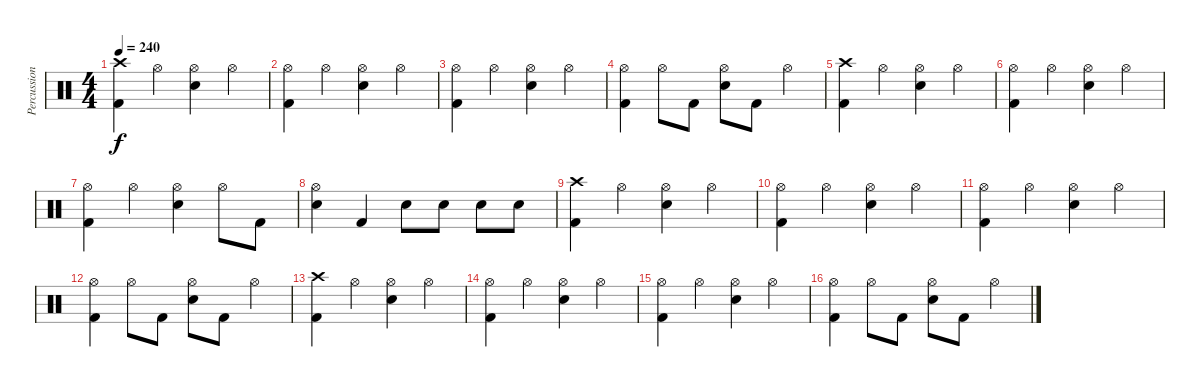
\track ("Percussion" "Percussion") {instrument percussion}
\staff {score}
\articulation defaults
\ts (4 4)
\tempo 240
\clef neutral
\ks c
("Crash high (hit)" "Kick (hit) 2").4{dy f} "Hi-Hat (open)".4 ("Hi-Hat (open)" "Snare (hit) 2").4 "Hi-Hat (open)".4 |
("Hi-Hat (open)" "Kick (hit) 2").4 "Hi-Hat (open)".4 ("Hi-Hat (open)" "Snare (hit) 2").4 "Hi-Hat (open)".4 |
("Hi-Hat (open)" "Kick (hit) 2").4 "Hi-Hat (open)".4 ("Hi-Hat (open)" "Snare (hit) 2").4 "Hi-Hat (open)".4 |
("Hi-Hat (open)" "Kick (hit) 2").4 "Hi-Hat (open)".8 "Kick (hit) 2".8 ("Hi-Hat (open)" "Snare (hit) 2").8 "Kick (hit) 2".8 "Hi-Hat (open)".4 |
("Crash high (hit)" "Kick (hit) 2").4 "Hi-Hat (open)".4 ("Hi-Hat (open)" "Snare (hit) 2").4 "Hi-Hat (open)".4 |
("Hi-Hat (open)" "Kick (hit) 2").4 "Hi-Hat (open)".4 ("Hi-Hat (open)" "Snare (hit) 2").4 "Hi-Hat (open)".4 |
("Hi-Hat (open)" "Kick (hit) 2").4 "Hi-Hat (open)".4 ("Hi-Hat (open)" "Snare (hit) 2").4 "Hi-Hat (open)".8 "Kick (hit) 2".8 |
("Hi-Hat (open)" "Snare (hit) 2").4 "Kick (hit) 2".4 "Snare (hit) 2".8 "Snare (hit) 2".8 "Snare (hit) 2".8 "Snare (hit) 2".8 |
("Crash high (hit)" "Kick (hit) 2").4 "Hi-Hat (open)".4 ("Hi-Hat (open)" "Snare (hit) 2").4 "Hi-Hat (open)".4 |
("Hi-Hat (open)" "Kick (hit) 2").4 "Hi-Hat (open)".4 ("Hi-Hat (open)" "Snare (hit) 2").4 "Hi-Hat (open)".4 |
("Hi-Hat (open)" "Kick (hit) 2").4 "Hi-Hat (open)".4 ("Hi-Hat (open)" "Snare (hit) 2").4 "Hi-Hat (open)".4 |
("Hi-Hat (open)" "Kick (hit) 2").4 "Hi-Hat (open)".8 "Kick (hit) 2".8 ("Hi-Hat (open)" "Snare (hit) 2").8 "Kick (hit) 2".8 "Hi-Hat (open)".4 |
("Crash high (hit)" "Kick (hit) 2").4 "Hi-Hat (open)".4 ("Hi-Hat (open)" "Snare (hit) 2").4 "Hi-Hat (open)".4 |
("Hi-Hat (open)" "Kick (hit) 2").4 "Hi-Hat (open)".4 ("Hi-Hat (open)" "Snare (hit) 2").4 "Hi-Hat (open)".4 |
("Hi-Hat (open)" "Kick (hit) 2").4 "Hi-Hat (open)".4 ("Hi-Hat (open)" "Snare (hit) 2").4 "Hi-Hat (open)".4 |
("Hi-Hat (open)" "Kick (hit) 2").4 "Hi-Hat (open)".8 "Kick (hit) 2".8 ("Hi-Hat (open)" "Snare (hit) 2").8 "Kick (hit) 2".8 "Hi-Hat (open)".4
